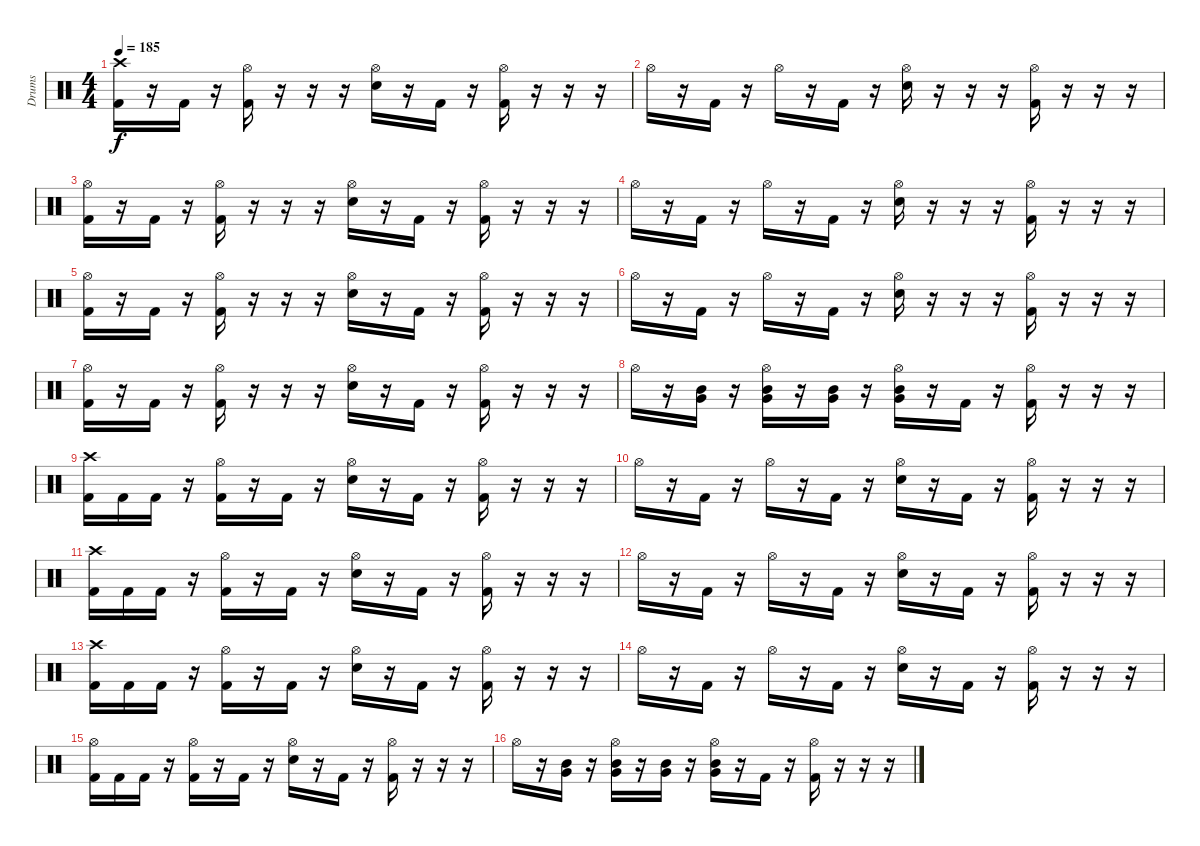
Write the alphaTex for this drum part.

\track ("Drums" "Drums") {instrument percussion}
\staff {score}
\articulation defaults
\ts (4 4)
\tempo 185
\clef neutral
\ks c
("Kick (hit) 2" "Crash high (hit)").16{dy f} r.16 "Kick (hit) 2".16 r.16 ("Kick (hit) 2" "Hi-Hat (open)").16 r.16 r.16 r.16 ("Electric Snare (hit)" "Hi-Hat (open)").16 r.16 "Kick (hit) 2".16 r.16 ("Kick (hit) 2" "Hi-Hat (open)").16 r.16 r.16 r.16 |
"Hi-Hat (open)".16 r.16 "Kick (hit) 2".16 r.16 "Hi-Hat (open)".16 r.16 "Kick (hit) 2".16 r.16 ("Electric Snare (hit)" "Hi-Hat (open)").16 r.16 r.16 r.16 ("Kick (hit) 2" "Hi-Hat (open)").16 r.16 r.16 r.16 |
("Kick (hit) 2" "Hi-Hat (open)").16 r.16 "Kick (hit) 2".16 r.16 ("Kick (hit) 2" "Hi-Hat (open)").16 r.16 r.16 r.16 ("Electric Snare (hit)" "Hi-Hat (open)").16 r.16 "Kick (hit) 2".16 r.16 ("Kick (hit) 2" "Hi-Hat (open)").16 r.16 r.16 r.16 |
"Hi-Hat (open)".16 r.16 "Kick (hit) 2".16 r.16 "Hi-Hat (open)".16 r.16 "Kick (hit) 2".16 r.16 ("Electric Snare (hit)" "Hi-Hat (open)").16 r.16 r.16 r.16 ("Kick (hit) 2" "Hi-Hat (open)").16 r.16 r.16 r.16 |
("Kick (hit) 2" "Hi-Hat (open)").16 r.16 "Kick (hit) 2".16 r.16 ("Kick (hit) 2" "Hi-Hat (open)").16 r.16 r.16 r.16 ("Electric Snare (hit)" "Hi-Hat (open)").16 r.16 "Kick (hit) 2".16 r.16 ("Kick (hit) 2" "Hi-Hat (open)").16 r.16 r.16 r.16 |
"Hi-Hat (open)".16 r.16 "Kick (hit) 2".16 r.16 "Hi-Hat (open)".16 r.16 "Kick (hit) 2".16 r.16 ("Electric Snare (hit)" "Hi-Hat (open)").16 r.16 r.16 r.16 ("Kick (hit) 2" "Hi-Hat (open)").16 r.16 r.16 r.16 |
("Kick (hit) 2" "Hi-Hat (open)").16 r.16 "Kick (hit) 2".16 r.16 ("Kick (hit) 2" "Hi-Hat (open)").16 r.16 r.16 r.16 ("Electric Snare (hit)" "Hi-Hat (open)").16 r.16 "Kick (hit) 2".16 r.16 ("Kick (hit) 2" "Hi-Hat (open)").16 r.16 r.16 r.16 |
"Hi-Hat (open)".16 r.16 ("Mid Tom (hit)" "Very Low Tom (hit)").16 r.16 ("Mid Tom (hit)" "Very Low Tom (hit)" "Hi-Hat (open)").16 r.16 ("Mid Tom (hit)" "Very Low Tom (hit)").16 r.16 ("Mid Tom (hit)" "Very Low Tom (hit)" "Hi-Hat (open)").16 r.16 "Kick (hit) 2".16 r.16 ("Kick (hit) 2" "Hi-Hat (open)").16 r.16 r.16 r.16 |
("Kick (hit) 2" "Crash high (hit)").16 "Kick (hit) 2".16 "Kick (hit) 2".16 r.16 ("Kick (hit) 2" "Hi-Hat (open)").16 r.16 "Kick (hit) 2".16 r.16 ("Electric Snare (hit)" "Hi-Hat (open)").16 r.16 "Kick (hit) 2".16 r.16 ("Kick (hit) 2" "Hi-Hat (open)").16 r.16 r.16 r.16 |
"Hi-Hat (open)".16 r.16 "Kick (hit) 2".16 r.16 "Hi-Hat (open)".16 r.16 "Kick (hit) 2".16 r.16 ("Electric Snare (hit)" "Hi-Hat (open)").16 r.16 "Kick (hit) 2".16 r.16 ("Kick (hit) 2" "Hi-Hat (open)").16 r.16 r.16 r.16 |
("Kick (hit) 2" "Crash high (hit)").16 "Kick (hit) 2".16 "Kick (hit) 2".16 r.16 ("Kick (hit) 2" "Hi-Hat (open)").16 r.16 "Kick (hit) 2".16 r.16 ("Electric Snare (hit)" "Hi-Hat (open)").16 r.16 "Kick (hit) 2".16 r.16 ("Kick (hit) 2" "Hi-Hat (open)").16 r.16 r.16 r.16 |
"Hi-Hat (open)".16 r.16 "Kick (hit) 2".16 r.16 "Hi-Hat (open)".16 r.16 "Kick (hit) 2".16 r.16 ("Electric Snare (hit)" "Hi-Hat (open)").16 r.16 "Kick (hit) 2".16 r.16 ("Kick (hit) 2" "Hi-Hat (open)").16 r.16 r.16 r.16 |
("Kick (hit) 2" "Crash high (hit)").16 "Kick (hit) 2".16 "Kick (hit) 2".16 r.16 ("Kick (hit) 2" "Hi-Hat (open)").16 r.16 "Kick (hit) 2".16 r.16 ("Electric Snare (hit)" "Hi-Hat (open)").16 r.16 "Kick (hit) 2".16 r.16 ("Kick (hit) 2" "Hi-Hat (open)").16 r.16 r.16 r.16 |
"Hi-Hat (open)".16 r.16 "Kick (hit) 2".16 r.16 "Hi-Hat (open)".16 r.16 "Kick (hit) 2".16 r.16 ("Electric Snare (hit)" "Hi-Hat (open)").16 r.16 "Kick (hit) 2".16 r.16 ("Kick (hit) 2" "Hi-Hat (open)").16 r.16 r.16 r.16 |
("Kick (hit) 2" "Hi-Hat (open)").16 "Kick (hit) 2".16 "Kick (hit) 2".16 r.16 ("Kick (hit) 2" "Hi-Hat (open)").16 r.16 "Kick (hit) 2".16 r.16 ("Electric Snare (hit)" "Hi-Hat (open)").16 r.16 "Kick (hit) 2".16 r.16 ("Kick (hit) 2" "Hi-Hat (open)").16 r.16 r.16 r.16 |
"Hi-Hat (open)".16 r.16 ("Mid Tom (hit)" "Very Low Tom (hit)").16 r.16 ("Mid Tom (hit)" "Very Low Tom (hit)" "Hi-Hat (open)").16 r.16 ("Mid Tom (hit)" "Very Low Tom (hit)").16 r.16 ("Mid Tom (hit)" "Very Low Tom (hit)" "Hi-Hat (open)").16 r.16 "Kick (hit) 2".16 r.16 ("Kick (hit) 2" "Hi-Hat (open)").16 r.16 r.16 r.16
